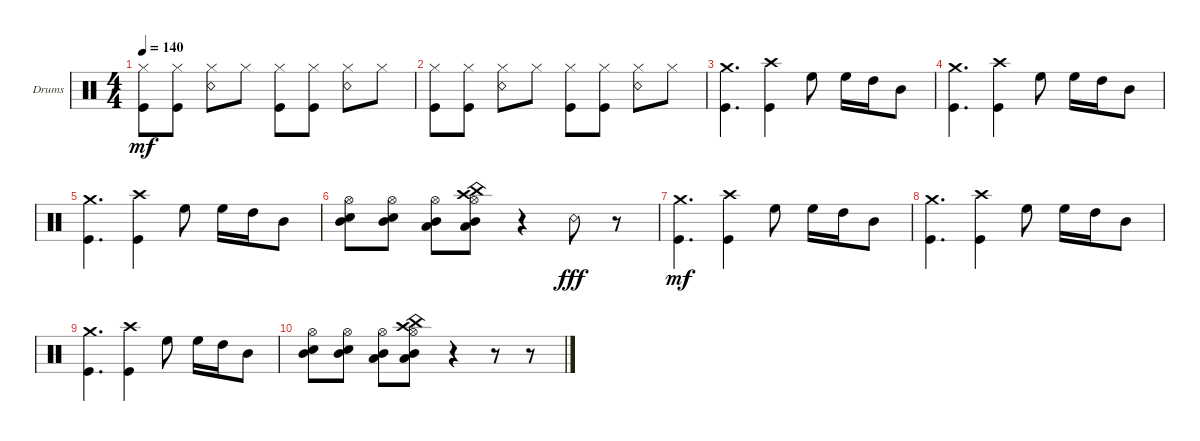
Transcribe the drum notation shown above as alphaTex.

\defaultSystemsLayout 4
\bracketExtendMode groupsimilarinstruments
\firstSystemTrackNameOrientation horizontal
\otherSystemsTrackNameOrientation horizontal
\track ("Drumkit" "Drums") {instrument percussion}
\staff {score}
\articulation defaults
\ts (4 4)
\tempo 140
\clef neutral
\ks c
("Hi-Hat (closed)" "Kick (hit)").8{dy mf} ("Hi-Hat (closed)" "Kick (hit)").8 ("Hi-Hat (closed)" "Snare (rim shot)").8 "Hi-Hat (closed)".8 ("Hi-Hat (closed)" "Kick (hit)").8 ("Hi-Hat (closed)" "Kick (hit)").8 ("Hi-Hat (closed)" "Snare (rim shot)").8 "Hi-Hat (closed)".8 |
("Hi-Hat (closed)" "Kick (hit)").8 ("Hi-Hat (closed)" "Kick (hit)").8 ("Hi-Hat (closed)" "Snare (rim shot)").8 "Hi-Hat (closed)".8 ("Hi-Hat (closed)" "Kick (hit)").8 ("Hi-Hat (closed)" "Kick (hit)").8 ("Hi-Hat (closed)" "Snare (rim shot)").8 "Hi-Hat (closed)".8 |
("Kick (hit)" "Crash medium (hit)").4{d} ("Kick (hit)" "Crash high (hit)").4 "High Floor Tom (hit)".8 "High Floor Tom (hit)".16 "High Tom (hit)".16 "Mid Tom (hit)".8 |
("Kick (hit)" "Crash medium (hit)").4{d} ("Kick (hit)" "Crash high (hit)").4 "High Floor Tom (hit)".8 "High Floor Tom (hit)".16 "High Tom (hit)".16 "Mid Tom (hit)".8 |
("Kick (hit)" "Crash medium (hit)").4{d} ("Kick (hit)" "Crash high (hit)").4 "High Floor Tom (hit)".8 "High Floor Tom (hit)".16 "High Tom (hit)".16 "Mid Tom (hit)".8 |
("Mid Tom (hit)" "Hi-Hat (open)" "Snare (hit) 2").8 ("Mid Tom (hit)" "Hi-Hat (open)" "Snare (hit) 2").8 ("Mid Tom (hit)" "Hi-Hat (open)" "Low Tom (hit)").8 ("Mid Tom (hit)" "Hi-Hat (open)" "Crash high (hit)" "Low Tom (hit)" "China (hit)").8 r.4 "Snare (rim shot)".8{dy fff} r.8 |
("Kick (hit)" "Crash medium (hit)").4{d dy mf} ("Kick (hit)" "Crash high (hit)").4 "High Floor Tom (hit)".8 "High Floor Tom (hit)".16 "High Tom (hit)".16 "Mid Tom (hit)".8 |
("Kick (hit)" "Crash medium (hit)").4{d} ("Kick (hit)" "Crash high (hit)").4 "High Floor Tom (hit)".8 "High Floor Tom (hit)".16 "High Tom (hit)".16 "Mid Tom (hit)".8 |
("Kick (hit)" "Crash medium (hit)").4{d} ("Kick (hit)" "Crash high (hit)").4 "High Floor Tom (hit)".8 "High Floor Tom (hit)".16 "High Tom (hit)".16 "Mid Tom (hit)".8 |
("Mid Tom (hit)" "Hi-Hat (open)" "Snare (hit) 2").8 ("Mid Tom (hit)" "Hi-Hat (open)" "Snare (hit) 2").8 ("Mid Tom (hit)" "Hi-Hat (open)" "Low Tom (hit)").8 ("Mid Tom (hit)" "Hi-Hat (open)" "Crash high (hit)" "Low Tom (hit)" "China (hit)").8 r.4 r.8 r.8
